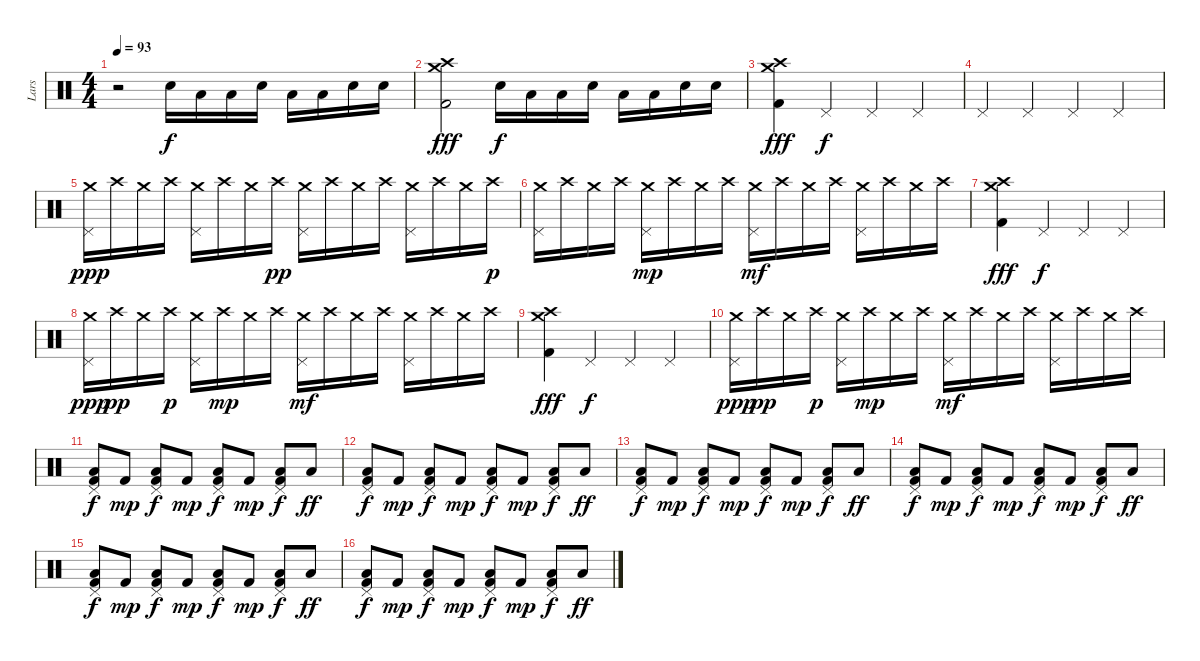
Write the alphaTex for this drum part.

\track ("Lars" "Lars") {instrument percussion}
\staff {score}
\articulation defaults
\ts (4 4)
\tempo 93
\clef neutral
\ks c
r.2{dy f} "Snare (hit) 2".16 "Low Tom (hit)".16 "Low Floor Tom (hit)".16 "Snare (hit) 2".16 "Low Tom (hit)".16 "Low Floor Tom (hit)".16 "Snare (hit) 2".16 "Snare (hit) 2".16 |
("Crash high (hit)" "Crash medium (hit)" "Kick (hit) 2").2{dy fff} "Snare (hit) 2".16{dy f} "Low Tom (hit)".16 "Low Floor Tom (hit)".16 "Snare (hit) 2".16 "Low Tom (hit)".16 "Low Floor Tom (hit)".16 "Snare (hit) 2".16 "Snare (hit) 2".16 |
("Crash medium (hit)" "Crash high (hit)" "Kick (hit) 2").4{dy fff} "Pedal Hi-Hat (hit)".4{dy f} "Pedal Hi-Hat (hit)".4 "Pedal Hi-Hat (hit)".4 |
"Pedal Hi-Hat (hit)".4 "Pedal Hi-Hat (hit)".4 "Pedal Hi-Hat (hit)".4 "Pedal Hi-Hat (hit)".4 |
("Crash medium (hit)" "Pedal Hi-Hat (hit)").16{dy ppp} "Crash high (hit)".16 "Crash medium (hit)".16 "Crash high (hit)".16 ("Crash medium (hit)" "Pedal Hi-Hat (hit)").16 "Crash high (hit)".16 "Crash medium (hit)".16 "Crash high (hit)".16{dy pp} ("Crash medium (hit)" "Pedal Hi-Hat (hit)").16 "Crash high (hit)".16 "Crash medium (hit)".16 "Crash high (hit)".16 ("Crash medium (hit)" "Pedal Hi-Hat (hit)").16 "Crash high (hit)".16 "Crash medium (hit)".16 "Crash high (hit)".16{dy p} |
("Crash medium (hit)" "Pedal Hi-Hat (hit)").16 "Crash high (hit)".16 "Crash medium (hit)".16 "Crash high (hit)".16 ("Crash medium (hit)" "Pedal Hi-Hat (hit)").16{dy mp} "Crash high (hit)".16 "Crash medium (hit)".16 "Crash high (hit)".16 ("Crash medium (hit)" "Pedal Hi-Hat (hit)").16{dy mf} "Crash high (hit)".16 "Crash medium (hit)".16 "Crash high (hit)".16 ("Crash medium (hit)" "Pedal Hi-Hat (hit)").16 "Crash high (hit)".16 "Crash medium (hit)".16 "Crash high (hit)".16 |
("Crash medium (hit)" "Crash high (hit)" "Kick (hit) 2").4{dy fff} "Pedal Hi-Hat (hit)".4{dy f} "Pedal Hi-Hat (hit)".4 "Pedal Hi-Hat (hit)".4 |
("Crash medium (hit)" "Pedal Hi-Hat (hit)").16{dy ppp} "Crash high (hit)".16{dy pp} "Crash medium (hit)".16 "Crash high (hit)".16{dy p} ("Crash medium (hit)" "Pedal Hi-Hat (hit)").16 "Crash high (hit)".16{dy mp} "Crash medium (hit)".16 "Crash high (hit)".16 ("Crash medium (hit)" "Pedal Hi-Hat (hit)").16{dy mf} "Crash high (hit)".16 "Crash medium (hit)".16 "Crash high (hit)".16 ("Crash medium (hit)" "Pedal Hi-Hat (hit)").16 "Crash high (hit)".16 "Crash medium (hit)".16 "Crash high (hit)".16 |
("Crash medium (hit)" "Crash high (hit)" "Kick (hit) 2").4{dy fff} "Pedal Hi-Hat (hit)".4{dy f} "Pedal Hi-Hat (hit)".4 "Pedal Hi-Hat (hit)".4 |
("Crash medium (hit)" "Pedal Hi-Hat (hit)").16{dy ppp} "Crash high (hit)".16{dy pp} "Crash medium (hit)".16 "Crash high (hit)".16{dy p} ("Crash medium (hit)" "Pedal Hi-Hat (hit)").16 "Crash high (hit)".16{dy mp} "Crash medium (hit)".16 "Crash high (hit)".16 ("Crash medium (hit)" "Pedal Hi-Hat (hit)").16{dy mf} "Crash high (hit)".16 "Crash medium (hit)".16 "Crash high (hit)".16 ("Crash medium (hit)" "Pedal Hi-Hat (hit)").16 "Crash high (hit)".16 "Crash medium (hit)".16 "Crash high (hit)".16 |
("Pedal Hi-Hat (hit)" "Low Floor Tom (hit)" "Kick (hit) 2").8{dy f} "Kick (hit) 2".8{dy mp} ("Pedal Hi-Hat (hit)" "Low Floor Tom (hit)" "Kick (hit) 2").8{dy f} "Kick (hit) 2".8{dy mp} ("Pedal Hi-Hat (hit)" "Low Floor Tom (hit)" "Kick (hit) 2").8{dy f} "Kick (hit) 2".8{dy mp} ("Pedal Hi-Hat (hit)" "Low Floor Tom (hit)" "Kick (hit) 2").8{dy f} "Low Floor Tom (hit)".8{dy ff} |
("Pedal Hi-Hat (hit)" "Low Floor Tom (hit)" "Kick (hit) 2").8{dy f} "Kick (hit) 2".8{dy mp} ("Pedal Hi-Hat (hit)" "Low Floor Tom (hit)" "Kick (hit) 2").8{dy f} "Kick (hit) 2".8{dy mp} ("Pedal Hi-Hat (hit)" "Low Floor Tom (hit)" "Kick (hit) 2").8{dy f} "Kick (hit) 2".8{dy mp} ("Pedal Hi-Hat (hit)" "Low Floor Tom (hit)" "Kick (hit) 2").8{dy f} "Low Floor Tom (hit)".8{dy ff} |
("Pedal Hi-Hat (hit)" "Low Floor Tom (hit)" "Kick (hit) 2").8{dy f} "Kick (hit) 2".8{dy mp} ("Pedal Hi-Hat (hit)" "Low Floor Tom (hit)" "Kick (hit) 2").8{dy f} "Kick (hit) 2".8{dy mp} ("Pedal Hi-Hat (hit)" "Low Floor Tom (hit)" "Kick (hit) 2").8{dy f} "Kick (hit) 2".8{dy mp} ("Pedal Hi-Hat (hit)" "Low Floor Tom (hit)" "Kick (hit) 2").8{dy f} "Low Floor Tom (hit)".8{dy ff} |
("Pedal Hi-Hat (hit)" "Low Floor Tom (hit)" "Kick (hit) 2").8{dy f} "Kick (hit) 2".8{dy mp} ("Pedal Hi-Hat (hit)" "Low Floor Tom (hit)" "Kick (hit) 2").8{dy f} "Kick (hit) 2".8{dy mp} ("Pedal Hi-Hat (hit)" "Low Floor Tom (hit)" "Kick (hit) 2").8{dy f} "Kick (hit) 2".8{dy mp} ("Pedal Hi-Hat (hit)" "Low Floor Tom (hit)" "Kick (hit) 2").8{dy f} "Low Floor Tom (hit)".8{dy ff} |
("Pedal Hi-Hat (hit)" "Low Floor Tom (hit)" "Kick (hit) 2").8{dy f} "Kick (hit) 2".8{dy mp} ("Pedal Hi-Hat (hit)" "Low Floor Tom (hit)" "Kick (hit) 2").8{dy f} "Kick (hit) 2".8{dy mp} ("Pedal Hi-Hat (hit)" "Low Floor Tom (hit)" "Kick (hit) 2").8{dy f} "Kick (hit) 2".8{dy mp} ("Pedal Hi-Hat (hit)" "Low Floor Tom (hit)" "Kick (hit) 2").8{dy f} "Low Floor Tom (hit)".8{dy ff} |
("Pedal Hi-Hat (hit)" "Low Floor Tom (hit)" "Kick (hit) 2").8{dy f} "Kick (hit) 2".8{dy mp} ("Pedal Hi-Hat (hit)" "Low Floor Tom (hit)" "Kick (hit) 2").8{dy f} "Kick (hit) 2".8{dy mp} ("Pedal Hi-Hat (hit)" "Low Floor Tom (hit)" "Kick (hit) 2").8{dy f} "Kick (hit) 2".8{dy mp} ("Pedal Hi-Hat (hit)" "Low Floor Tom (hit)" "Kick (hit) 2").8{dy f} "Low Floor Tom (hit)".8{dy ff}
